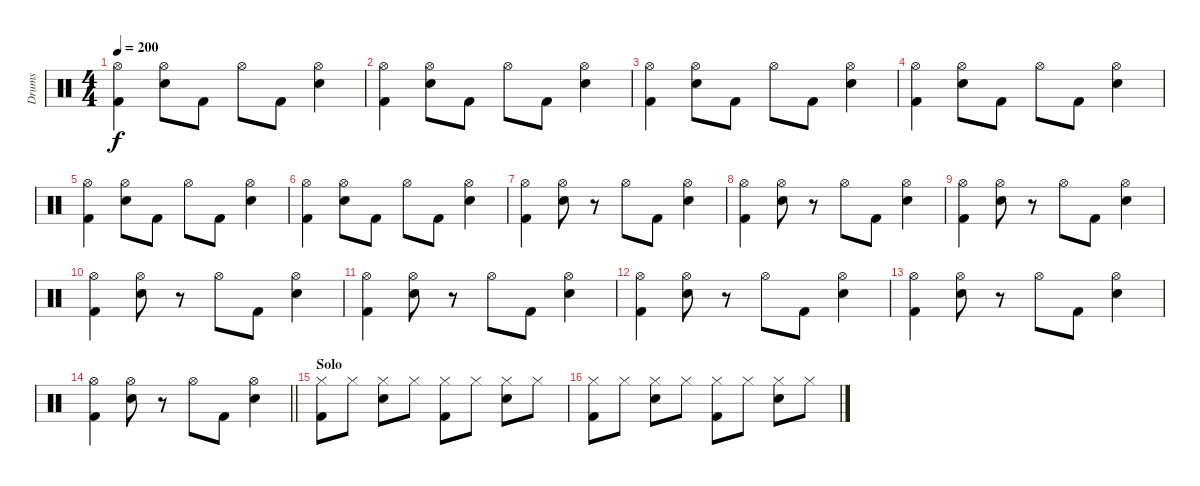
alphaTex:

\track ("Drums" "Drums") {instrument percussion}
\staff {score}
\articulation defaults
\ts (4 4)
\tempo 200
\clef neutral
\ks c
("Hi-Hat (open)" "Kick (hit) 2").4{dy f} ("Snare (hit) 2" "Hi-Hat (open)").8 "Kick (hit) 2".8 "Hi-Hat (open)".8 "Kick (hit) 2".8 ("Snare (hit) 2" "Hi-Hat (open)").4 |
("Hi-Hat (open)" "Kick (hit) 2").4 ("Snare (hit) 2" "Hi-Hat (open)").8 "Kick (hit) 2".8 "Hi-Hat (open)".8 "Kick (hit) 2".8 ("Snare (hit) 2" "Hi-Hat (open)").4 |
("Hi-Hat (open)" "Kick (hit) 2").4 ("Snare (hit) 2" "Hi-Hat (open)").8 "Kick (hit) 2".8 "Hi-Hat (open)".8 "Kick (hit) 2".8 ("Snare (hit) 2" "Hi-Hat (open)").4 |
("Hi-Hat (open)" "Kick (hit) 2").4 ("Snare (hit) 2" "Hi-Hat (open)").8 "Kick (hit) 2".8 "Hi-Hat (open)".8 "Kick (hit) 2".8 ("Snare (hit) 2" "Hi-Hat (open)").4 |
("Hi-Hat (open)" "Kick (hit) 2").4 ("Snare (hit) 2" "Hi-Hat (open)").8 "Kick (hit) 2".8 "Hi-Hat (open)".8 "Kick (hit) 2".8 ("Snare (hit) 2" "Hi-Hat (open)").4 |
("Hi-Hat (open)" "Kick (hit) 2").4 ("Snare (hit) 2" "Hi-Hat (open)").8 "Kick (hit) 2".8 "Hi-Hat (open)".8 "Kick (hit) 2".8 ("Snare (hit) 2" "Hi-Hat (open)").4 |
("Hi-Hat (open)" "Kick (hit) 2").4 ("Snare (hit) 2" "Hi-Hat (open)").8 r.8 "Hi-Hat (open)".8 "Kick (hit) 2".8 ("Snare (hit) 2" "Hi-Hat (open)").4 |
("Hi-Hat (open)" "Kick (hit) 2").4 ("Snare (hit) 2" "Hi-Hat (open)").8 r.8 "Hi-Hat (open)".8 "Kick (hit) 2".8 ("Snare (hit) 2" "Hi-Hat (open)").4 |
("Hi-Hat (open)" "Kick (hit) 2").4 ("Snare (hit) 2" "Hi-Hat (open)").8 r.8 "Hi-Hat (open)".8 "Kick (hit) 2".8 ("Snare (hit) 2" "Hi-Hat (open)").4 |
("Hi-Hat (open)" "Kick (hit) 2").4 ("Snare (hit) 2" "Hi-Hat (open)").8 r.8 "Hi-Hat (open)".8 "Kick (hit) 2".8 ("Snare (hit) 2" "Hi-Hat (open)").4 |
("Hi-Hat (open)" "Kick (hit) 2").4 ("Snare (hit) 2" "Hi-Hat (open)").8 r.8 "Hi-Hat (open)".8 "Kick (hit) 2".8 ("Snare (hit) 2" "Hi-Hat (open)").4 |
("Hi-Hat (open)" "Kick (hit) 2").4 ("Snare (hit) 2" "Hi-Hat (open)").8 r.8 "Hi-Hat (open)".8 "Kick (hit) 2".8 ("Snare (hit) 2" "Hi-Hat (open)").4 |
("Hi-Hat (open)" "Kick (hit) 2").4 ("Snare (hit) 2" "Hi-Hat (open)").8 r.8 "Hi-Hat (open)".8 "Kick (hit) 2".8 ("Snare (hit) 2" "Hi-Hat (open)").4 |
\barLineRight lightlight
("Hi-Hat (open)" "Kick (hit) 2").4 ("Snare (hit) 2" "Hi-Hat (open)").8 r.8 "Hi-Hat (open)".8 "Kick (hit) 2".8 ("Snare (hit) 2" "Hi-Hat (open)").4 |
\section ("" "Solo")
("Hi-Hat (closed)" "Kick (hit) 2").8 "Hi-Hat (closed)".8 ("Snare (hit) 2" "Hi-Hat (closed)").8 "Hi-Hat (closed)".8 ("Hi-Hat (closed)" "Kick (hit) 2").8 "Hi-Hat (closed)".8 ("Snare (hit) 2" "Hi-Hat (closed)").8 "Hi-Hat (closed)".8 |
("Hi-Hat (closed)" "Kick (hit) 2").8 "Hi-Hat (closed)".8 ("Snare (hit) 2" "Hi-Hat (closed)").8 "Hi-Hat (closed)".8 ("Hi-Hat (closed)" "Kick (hit) 2").8 "Hi-Hat (closed)".8 ("Snare (hit) 2" "Hi-Hat (closed)").8 "Hi-Hat (closed)".8
